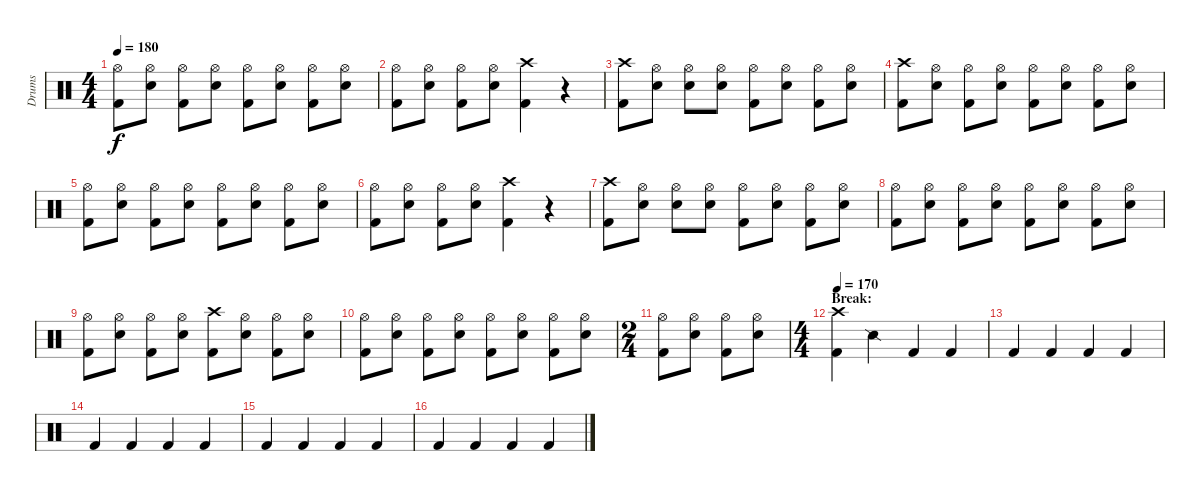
\track ("Drums" "Drums") {instrument percussion}
\staff {score}
\articulation defaults
\ts (4 4)
\tempo 180
\clef neutral
\ks c
("Hi-Hat (open)" "Kick (hit) 2").8{dy f} ("Hi-Hat (open)" "Electric Snare (hit)").8 ("Hi-Hat (open)" "Kick (hit) 2").8 ("Hi-Hat (open)" "Electric Snare (hit)").8 ("Hi-Hat (open)" "Kick (hit) 2").8 ("Hi-Hat (open)" "Electric Snare (hit)").8 ("Hi-Hat (open)" "Kick (hit) 2").8 ("Hi-Hat (open)" "Electric Snare (hit)").8 |
("Hi-Hat (open)" "Kick (hit) 2").8 ("Hi-Hat (open)" "Electric Snare (hit)").8 ("Hi-Hat (open)" "Kick (hit) 2").8 ("Hi-Hat (open)" "Electric Snare (hit)").8 ("Crash high (hit)" "Kick (hit) 2").4 r.4 |
("Crash high (hit)" "Kick (hit) 2").8 ("Hi-Hat (open)" "Electric Snare (hit)").8 ("Hi-Hat (open)" "Electric Snare (hit)").8 ("Hi-Hat (open)" "Electric Snare (hit)").8 ("Hi-Hat (open)" "Kick (hit) 2").8 ("Hi-Hat (open)" "Electric Snare (hit)").8 ("Hi-Hat (open)" "Kick (hit) 2").8 ("Hi-Hat (open)" "Electric Snare (hit)").8 |
("Crash high (hit)" "Kick (hit) 2").8 ("Hi-Hat (open)" "Electric Snare (hit)").8 ("Hi-Hat (open)" "Kick (hit) 2").8 ("Hi-Hat (open)" "Electric Snare (hit)").8 ("Hi-Hat (open)" "Kick (hit) 2").8 ("Hi-Hat (open)" "Electric Snare (hit)").8 ("Hi-Hat (open)" "Kick (hit) 2").8 ("Hi-Hat (open)" "Electric Snare (hit)").8 |
("Hi-Hat (open)" "Kick (hit) 2").8 ("Hi-Hat (open)" "Electric Snare (hit)").8 ("Hi-Hat (open)" "Kick (hit) 2").8 ("Hi-Hat (open)" "Electric Snare (hit)").8 ("Hi-Hat (open)" "Kick (hit) 2").8 ("Hi-Hat (open)" "Electric Snare (hit)").8 ("Hi-Hat (open)" "Kick (hit) 2").8 ("Hi-Hat (open)" "Electric Snare (hit)").8 |
("Hi-Hat (open)" "Kick (hit) 2").8 ("Hi-Hat (open)" "Electric Snare (hit)").8 ("Hi-Hat (open)" "Kick (hit) 2").8 ("Hi-Hat (open)" "Electric Snare (hit)").8 ("Crash high (hit)" "Kick (hit) 2").4 r.4 |
("Crash high (hit)" "Kick (hit) 2").8 ("Hi-Hat (open)" "Electric Snare (hit)").8 ("Hi-Hat (open)" "Electric Snare (hit)").8 ("Hi-Hat (open)" "Electric Snare (hit)").8 ("Hi-Hat (open)" "Kick (hit) 2").8 ("Hi-Hat (open)" "Electric Snare (hit)").8 ("Hi-Hat (open)" "Kick (hit) 2").8 ("Hi-Hat (open)" "Electric Snare (hit)").8 |
("Hi-Hat (open)" "Kick (hit) 2").8 ("Hi-Hat (open)" "Electric Snare (hit)").8 ("Hi-Hat (open)" "Kick (hit) 2").8 ("Hi-Hat (open)" "Electric Snare (hit)").8 ("Hi-Hat (open)" "Kick (hit) 2").8 ("Hi-Hat (open)" "Electric Snare (hit)").8 ("Hi-Hat (open)" "Kick (hit) 2").8 ("Hi-Hat (open)" "Electric Snare (hit)").8 |
("Hi-Hat (open)" "Kick (hit) 2").8 ("Hi-Hat (open)" "Electric Snare (hit)").8 ("Hi-Hat (open)" "Kick (hit) 2").8 ("Hi-Hat (open)" "Electric Snare (hit)").8 ("Crash high (hit)" "Kick (hit) 2").8 ("Hi-Hat (open)" "Electric Snare (hit)").8 ("Hi-Hat (open)" "Kick (hit) 2").8 ("Hi-Hat (open)" "Electric Snare (hit)").8 |
("Hi-Hat (open)" "Kick (hit) 2").8 ("Hi-Hat (open)" "Electric Snare (hit)").8 ("Hi-Hat (open)" "Kick (hit) 2").8 ("Hi-Hat (open)" "Electric Snare (hit)").8 ("Hi-Hat (open)" "Kick (hit) 2").8 ("Hi-Hat (open)" "Electric Snare (hit)").8 ("Hi-Hat (open)" "Kick (hit) 2").8 ("Hi-Hat (open)" "Electric Snare (hit)").8 |
\ts (2 4)
("Hi-Hat (open)" "Kick (hit) 2").8 ("Hi-Hat (open)" "Electric Snare (hit)").8 ("Hi-Hat (open)" "Kick (hit) 2").8 ("Hi-Hat (open)" "Electric Snare (hit)").8 |
\ts (4 4)
\section ("" "Break:")
\tempo 170
("Crash high (hit)" "Kick (hit) 2").4 "Snare (side stick) 2".4 "Kick (hit) 2".4 "Kick (hit) 2".4 |
"Kick (hit) 2".4 "Kick (hit) 2".4 "Kick (hit) 2".4 "Kick (hit) 2".4 |
"Kick (hit) 2".4 "Kick (hit) 2".4 "Kick (hit) 2".4 "Kick (hit) 2".4 |
"Kick (hit) 2".4 "Kick (hit) 2".4 "Kick (hit) 2".4 "Kick (hit) 2".4 |
"Kick (hit) 2".4 "Kick (hit) 2".4 "Kick (hit) 2".4 "Kick (hit) 2".4
